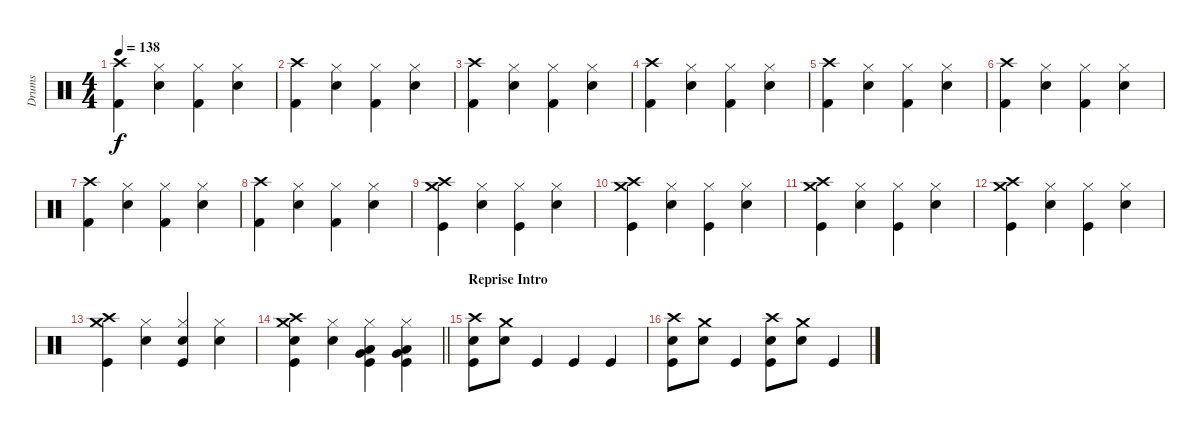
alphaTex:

\track ("Drums" "Drums") {instrument percussion}
\staff {score}
\articulation defaults
\ts (4 4)
\tempo 138
\clef neutral
\ks c
("Crash high (hit)" "Kick (hit) 2").4{dy f} ("Snare (hit) 2" "Hi-Hat (closed)").4 ("Hi-Hat (closed)" "Kick (hit) 2").4 ("Snare (hit) 2" "Hi-Hat (closed)").4 |
("Crash high (hit)" "Kick (hit) 2").4 ("Snare (hit) 2" "Hi-Hat (closed)").4 ("Hi-Hat (closed)" "Kick (hit) 2").4 ("Snare (hit) 2" "Hi-Hat (closed)").4 |
("Crash high (hit)" "Kick (hit) 2").4 ("Snare (hit) 2" "Hi-Hat (closed)").4 ("Hi-Hat (closed)" "Kick (hit) 2").4 ("Snare (hit) 2" "Hi-Hat (closed)").4 |
("Crash high (hit)" "Kick (hit) 2").4 ("Snare (hit) 2" "Hi-Hat (closed)").4 ("Hi-Hat (closed)" "Kick (hit) 2").4 ("Snare (hit) 2" "Hi-Hat (closed)").4 |
("Crash high (hit)" "Kick (hit) 2").4 ("Snare (hit) 2" "Hi-Hat (closed)").4 ("Hi-Hat (closed)" "Kick (hit) 2").4 ("Snare (hit) 2" "Hi-Hat (closed)").4 |
("Crash high (hit)" "Kick (hit) 2").4 ("Snare (hit) 2" "Hi-Hat (closed)").4 ("Hi-Hat (closed)" "Kick (hit) 2").4 ("Snare (hit) 2" "Hi-Hat (closed)").4 |
("Crash high (hit)" "Kick (hit) 2").4 ("Snare (hit) 2" "Hi-Hat (closed)").4 ("Hi-Hat (closed)" "Kick (hit) 2").4 ("Snare (hit) 2" "Hi-Hat (closed)").4 |
("Crash high (hit)" "Kick (hit) 2").4 ("Snare (hit) 2" "Hi-Hat (closed)").4 ("Hi-Hat (closed)" "Kick (hit) 2").4 ("Snare (hit) 2" "Hi-Hat (closed)").4 |
("Crash high (hit)" "Crash medium (hit)" "Kick (hit)").4 ("Hi-Hat (closed)" "Snare (hit) 2").4 ("Hi-Hat (closed)" "Kick (hit)").4 ("Hi-Hat (closed)" "Snare (hit) 2").4 |
("Crash high (hit)" "Crash medium (hit)" "Kick (hit)").4 ("Hi-Hat (closed)" "Snare (hit) 2").4 ("Hi-Hat (closed)" "Kick (hit)").4 ("Hi-Hat (closed)" "Snare (hit) 2").4 |
("Crash high (hit)" "Crash medium (hit)" "Kick (hit)").4 ("Hi-Hat (closed)" "Snare (hit) 2").4 ("Hi-Hat (closed)" "Kick (hit)").4 ("Hi-Hat (closed)" "Snare (hit) 2").4 |
("Crash high (hit)" "Crash medium (hit)" "Kick (hit)").4 ("Hi-Hat (closed)" "Snare (hit) 2").4 ("Hi-Hat (closed)" "Kick (hit)").4 ("Hi-Hat (closed)" "Snare (hit) 2").4 |
("Crash high (hit)" "Crash medium (hit)" "Kick (hit)").4 ("Hi-Hat (closed)" "Snare (hit) 2").4 ("Hi-Hat (closed)" "Snare (hit) 2" "Kick (hit)").4 ("Hi-Hat (closed)" "Snare (hit) 2").4 |
\barLineRight lightlight
("Crash high (hit)" "Snare (hit) 2" "Crash medium (hit)" "Kick (hit)").4 ("Hi-Hat (closed)" "Snare (hit) 2").4 ("Hi-Hat (closed)" "Low Tom (hit)" "Very Low Tom (hit)" "Kick (hit)").4 ("Hi-Hat (closed)" "Very Low Tom (hit)" "Low Floor Tom (hit)" "Kick (hit)").4 |
\section ("" "Reprise Intro")
("Crash high (hit)" "Snare (hit) 2" "Kick (hit)").8 ("Crash medium (hit)" "Snare (hit) 2").8 "Kick (hit)".4 "Kick (hit)".4 "Kick (hit)".4 |
("Crash high (hit)" "Snare (hit) 2" "Kick (hit)").8 ("Crash medium (hit)" "Snare (hit) 2").8 "Kick (hit)".4 ("Crash high (hit)" "Snare (hit) 2" "Kick (hit)").8 ("Crash medium (hit)" "Snare (hit) 2").8 "Kick (hit)".4
